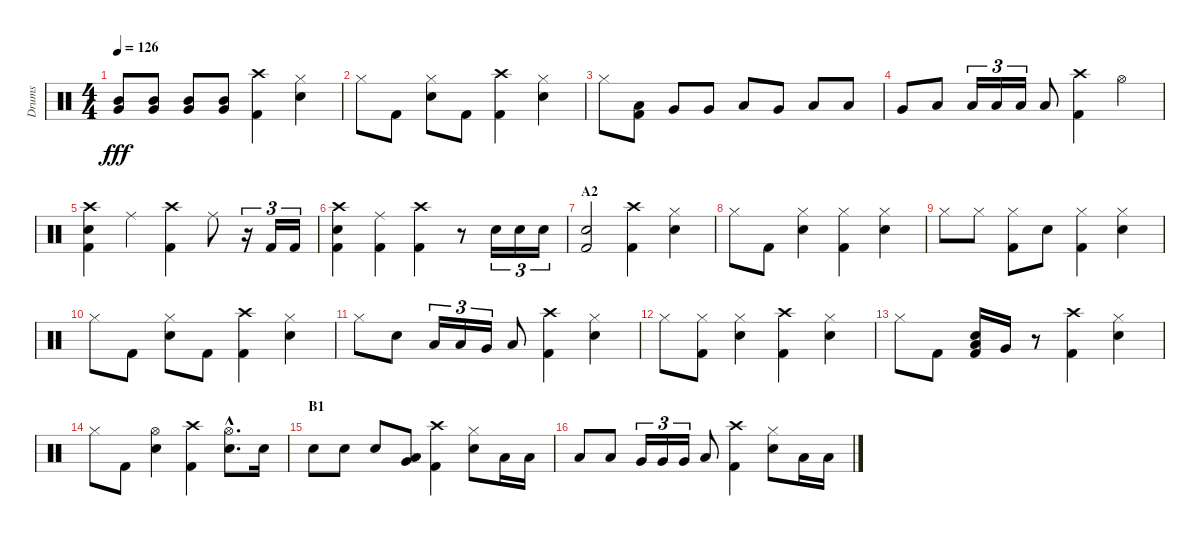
\track ("Drums" "Drums") {instrument percussion}
\staff {score}
\articulation defaults
\ts (4 4)
\tempo 126
\clef neutral
\ks c
("Mid Tom (hit)" "Very Low Tom (hit)").8{dy fff} ("Mid Tom (hit)" "Very Low Tom (hit)").8 ("Mid Tom (hit)" "Very Low Tom (hit)").8 ("Mid Tom (hit)" "Very Low Tom (hit)").8 ("Crash high (hit)" "Kick (hit) 2").4 ("Hi-Hat (closed)" "Electric Snare (hit)").4 |
"Hi-Hat (closed)".8 "Kick (hit) 2".8 ("Hi-Hat (closed)" "Electric Snare (hit)").8 "Kick (hit) 2".8 ("Crash high (hit)" "Kick (hit) 2").4 ("Hi-Hat (closed)" "Electric Snare (hit)").4 |
"Hi-Hat (closed)".8 ("Low Tom (hit)" "Kick (hit) 2").8 "Very Low Tom (hit)".8 "Very Low Tom (hit)".8 "Low Tom (hit)".8 "Very Low Tom (hit)".8 "Low Floor Tom (hit)".8 "Low Tom (hit)".8 |
"Very Low Tom (hit)".8 "Low Floor Tom (hit)".8 "Low Tom (hit)".16{tu (3 2)} "Low Tom (hit)".16{tu (3 2)} "Low Tom (hit)".16{tu (3 2)} "Low Floor Tom (hit)".8 ("Crash high (hit)" "Kick (hit) 2").4 "Hi-Hat (open)".4 |
("Crash high (hit)" "Electric Snare (hit)" "Kick (hit) 2").4 "Ride (middle)".4 ("Crash high (hit)" "Kick (hit) 2").4 "Ride (middle)".8 r.16{tu (3 2)} "Kick (hit) 2".16{tu (3 2)} "Kick (hit) 2".16{tu (3 2)} |
("Crash high (hit)" "Electric Snare (hit)" "Kick (hit) 2").4 ("Ride (middle)" "Kick (hit) 2").4 ("Crash high (hit)" "Kick (hit) 2").4 r.8 "Electric Snare (hit)".16{tu (3 2)} "Electric Snare (hit)".16{tu (3 2)} "Electric Snare (hit)".16{tu (3 2)} |
\section ("" "A2")
("Electric Snare (hit)" "Kick (hit) 2").2 ("Crash high (hit)" "Kick (hit) 2").4 ("Hi-Hat (closed)" "Electric Snare (hit)").4 |
"Hi-Hat (closed)".8 "Kick (hit) 2".8 ("Hi-Hat (closed)" "Electric Snare (hit)").4 ("Hi-Hat (closed)" "Kick (hit) 2").4 ("Hi-Hat (closed)" "Electric Snare (hit)").4 |
"Hi-Hat (closed)".8 "Hi-Hat (closed)".8 ("Hi-Hat (closed)" "Kick (hit) 2").8 "Electric Snare (hit)".8 ("Hi-Hat (closed)" "Kick (hit) 2").4 ("Hi-Hat (closed)" "Electric Snare (hit)").4 |
"Hi-Hat (closed)".8 "Kick (hit) 2".8 ("Hi-Hat (closed)" "Electric Snare (hit)").8 "Kick (hit) 2".8 ("Crash high (hit)" "Kick (hit) 2").4 ("Hi-Hat (closed)" "Electric Snare (hit)").4 |
"Hi-Hat (closed)".8 "Electric Snare (hit)".8 "Low Tom (hit)".16{tu (3 2)} "Low Tom (hit)".16{tu (3 2)} "Very Low Tom (hit)".16{tu (3 2)} "Low Floor Tom (hit)".8 ("Crash high (hit)" "Kick (hit) 2").4 ("Hi-Hat (closed)" "Electric Snare (hit)").4 |
"Hi-Hat (closed)".8 ("Hi-Hat (closed)" "Kick (hit) 2").8 ("Hi-Hat (closed)" "Electric Snare (hit)").4 ("Crash high (hit)" "Kick (hit) 2").4 ("Hi-Hat (closed)" "Electric Snare (hit)").4 |
"Hi-Hat (closed)".8 "Kick (hit) 2".8 ("Low Tom (hit)" "Electric Snare (hit)" "Kick (hit) 2").16 "Very Low Tom (hit)".16 r.8 ("Crash high (hit)" "Kick (hit) 2").4 ("Hi-Hat (closed)" "Electric Snare (hit)").4 |
"Hi-Hat (closed)".8 "Kick (hit) 2".8 ("Hi-Hat (open)" "Electric Snare (hit)").4 ("Crash high (hit)" "Kick (hit) 2").4 ("Hi-Hat (open)"{hac} "Electric Snare (hit)"{hac}).8{d} "Electric Snare (hit)".16 |
\section ("" "B1")
"Electric Snare (hit)".8 "Electric Snare (hit)".8 "Electric Snare (hit)".8 ("Very Low Tom (hit)" "Low Floor Tom (hit)").8 ("Crash high (hit)" "Kick (hit) 2").4 ("Hi-Hat (closed)" "Electric Snare (hit)").8 "Low Tom (hit)".16 "Low Tom (hit)".16 |
"Low Tom (hit)".8 "Low Tom (hit)".8 "Very Low Tom (hit)".16{tu (3 2)} "Very Low Tom (hit)".16{tu (3 2)} "Very Low Tom (hit)".16{tu (3 2)} "Low Floor Tom (hit)".8 ("Crash high (hit)" "Kick (hit) 2").4 ("Hi-Hat (closed)" "Electric Snare (hit)").8 "Low Tom (hit)".16 "Low Tom (hit)".16
